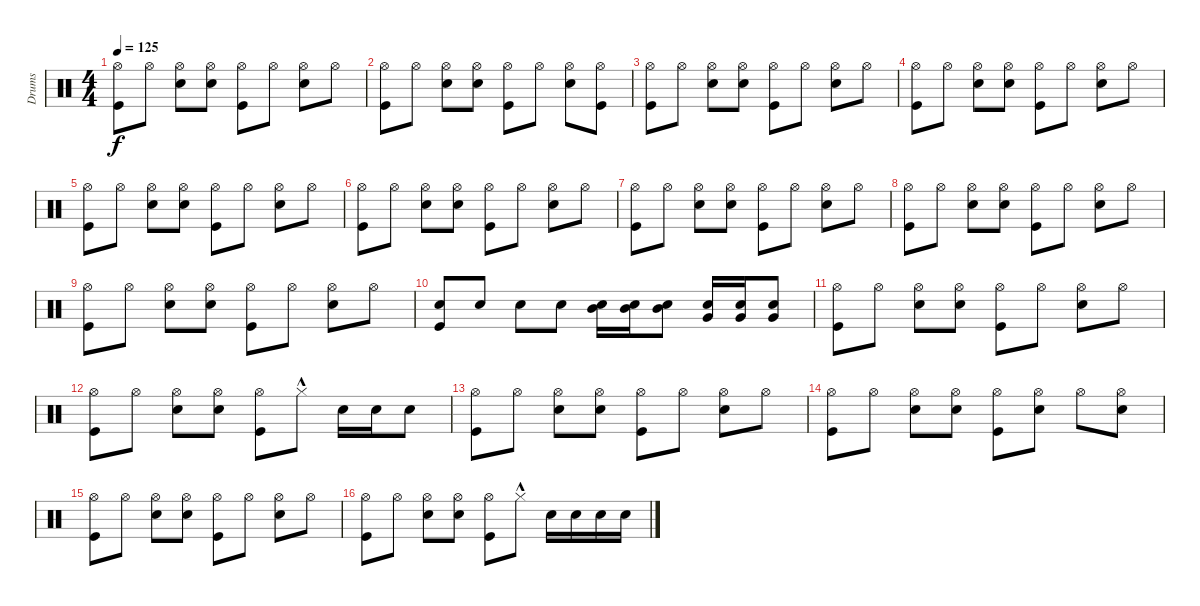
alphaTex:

\track ("Drums" "Drums") {instrument percussion}
\staff {score}
\articulation defaults
\ts (4 4)
\tempo 125
\clef neutral
\ks c
("Kick (hit)" "Hi-Hat (open)").8{dy f} "Hi-Hat (open)".8 ("Hi-Hat (open)" "Snare (hit) 2").8 ("Hi-Hat (open)" "Snare (hit) 2").8 ("Hi-Hat (open)" "Kick (hit)").8 "Hi-Hat (open)".8 ("Hi-Hat (open)" "Snare (hit) 2").8 "Hi-Hat (open)".8 |
("Kick (hit)" "Hi-Hat (open)").8 "Hi-Hat (open)".8 ("Hi-Hat (open)" "Snare (hit) 2").8 ("Hi-Hat (open)" "Snare (hit) 2").8 ("Hi-Hat (open)" "Kick (hit)").8 "Hi-Hat (open)".8 ("Hi-Hat (open)" "Snare (hit) 2").8 ("Hi-Hat (open)" "Kick (hit)").8 |
("Hi-Hat (open)" "Kick (hit)").8 "Hi-Hat (open)".8 ("Hi-Hat (open)" "Snare (hit) 2").8 ("Hi-Hat (open)" "Snare (hit) 2").8 ("Hi-Hat (open)" "Kick (hit)").8 "Hi-Hat (open)".8 ("Hi-Hat (open)" "Snare (hit) 2").8 "Hi-Hat (open)".8 |
("Kick (hit)" "Hi-Hat (open)").8 "Hi-Hat (open)".8 ("Hi-Hat (open)" "Snare (hit) 2").8 ("Hi-Hat (open)" "Snare (hit) 2").8 ("Hi-Hat (open)" "Kick (hit)").8 "Hi-Hat (open)".8 ("Hi-Hat (open)" "Snare (hit) 2").8 "Hi-Hat (open)".8 |
("Kick (hit)" "Hi-Hat (open)").8 "Hi-Hat (open)".8 ("Hi-Hat (open)" "Snare (hit) 2").8 ("Hi-Hat (open)" "Snare (hit) 2").8 ("Hi-Hat (open)" "Kick (hit)").8 "Hi-Hat (open)".8 ("Hi-Hat (open)" "Snare (hit) 2").8 "Hi-Hat (open)".8 |
("Kick (hit)" "Hi-Hat (open)").8 "Hi-Hat (open)".8 ("Hi-Hat (open)" "Snare (hit) 2").8 ("Hi-Hat (open)" "Snare (hit) 2").8 ("Hi-Hat (open)" "Kick (hit)").8 "Hi-Hat (open)".8 ("Hi-Hat (open)" "Snare (hit) 2").8 "Hi-Hat (open)".8 |
("Kick (hit)" "Hi-Hat (open)").8 "Hi-Hat (open)".8 ("Hi-Hat (open)" "Snare (hit) 2").8 ("Hi-Hat (open)" "Snare (hit) 2").8 ("Hi-Hat (open)" "Kick (hit)").8 "Hi-Hat (open)".8 ("Hi-Hat (open)" "Snare (hit) 2").8 "Hi-Hat (open)".8 |
("Kick (hit)" "Hi-Hat (open)").8 "Hi-Hat (open)".8 ("Hi-Hat (open)" "Snare (hit) 2").8 ("Hi-Hat (open)" "Snare (hit) 2").8 ("Hi-Hat (open)" "Kick (hit)").8 "Hi-Hat (open)".8 ("Hi-Hat (open)" "Snare (hit) 2").8 "Hi-Hat (open)".8 |
("Kick (hit)" "Hi-Hat (open)").8 "Hi-Hat (open)".8 ("Hi-Hat (open)" "Snare (hit) 2").8 ("Hi-Hat (open)" "Snare (hit) 2").8 ("Hi-Hat (open)" "Kick (hit)").8 "Hi-Hat (open)".8 ("Hi-Hat (open)" "Snare (hit) 2").8 "Hi-Hat (open)".8 |
("Snare (hit) 2" "Kick (hit)").8 "Snare (hit) 2".8 "Snare (hit) 2".8 "Snare (hit) 2".8 ("Snare (hit) 2" "Mid Tom (hit)").16 ("Snare (hit) 2" "Mid Tom (hit)").16 ("Snare (hit) 2" "Mid Tom (hit)").8 ("Very Low Tom (hit)" "Snare (hit) 2").16 ("Very Low Tom (hit)" "Snare (hit) 2").16 ("Snare (hit) 2" "Very Low Tom (hit)").8 |
("Hi-Hat (open)" "Kick (hit)").8 "Hi-Hat (open)".8 ("Hi-Hat (open)" "Snare (hit) 2").8 ("Hi-Hat (open)" "Snare (hit) 2").8 ("Hi-Hat (open)" "Kick (hit)").8 "Hi-Hat (open)".8 ("Hi-Hat (open)" "Snare (hit) 2").8 "Hi-Hat (open)".8 |
("Hi-Hat (open)" "Kick (hit)").8 "Hi-Hat (open)".8 ("Hi-Hat (open)" "Snare (hit) 2").8 ("Hi-Hat (open)" "Snare (hit) 2").8 ("Kick (hit)" "Hi-Hat (open)").8 "Hi-Hat (closed)"{hac}.8 "Snare (hit) 2".16 "Snare (hit) 2".16 "Snare (hit) 2".8 |
("Kick (hit)" "Hi-Hat (open)").8 "Hi-Hat (open)".8 ("Hi-Hat (open)" "Snare (hit) 2").8 ("Hi-Hat (open)" "Snare (hit) 2").8 ("Hi-Hat (open)" "Kick (hit)").8 "Hi-Hat (open)".8 ("Hi-Hat (open)" "Snare (hit) 2").8 "Hi-Hat (open)".8 |
("Kick (hit)" "Hi-Hat (open)").8 "Hi-Hat (open)".8 ("Hi-Hat (open)" "Snare (hit) 2").8 ("Hi-Hat (open)" "Snare (hit) 2").8 ("Hi-Hat (open)" "Kick (hit)").8 ("Hi-Hat (open)" "Snare (hit) 2").8 "Hi-Hat (open)".8 ("Hi-Hat (open)" "Snare (hit) 2").8 |
("Kick (hit)" "Hi-Hat (open)").8 "Hi-Hat (open)".8 ("Hi-Hat (open)" "Snare (hit) 2").8 ("Hi-Hat (open)" "Snare (hit) 2").8 ("Hi-Hat (open)" "Kick (hit)").8 "Hi-Hat (open)".8 ("Hi-Hat (open)" "Snare (hit) 2").8 "Hi-Hat (open)".8 |
("Kick (hit)" "Hi-Hat (open)").8 "Hi-Hat (open)".8 ("Hi-Hat (open)" "Snare (hit) 2").8 ("Hi-Hat (open)" "Snare (hit) 2").8 ("Kick (hit)" "Hi-Hat (open)").8 "Hi-Hat (closed)"{hac}.8 "Snare (hit) 2".16 "Snare (hit) 2".16 "Snare (hit) 2".16 "Snare (hit) 2".16
